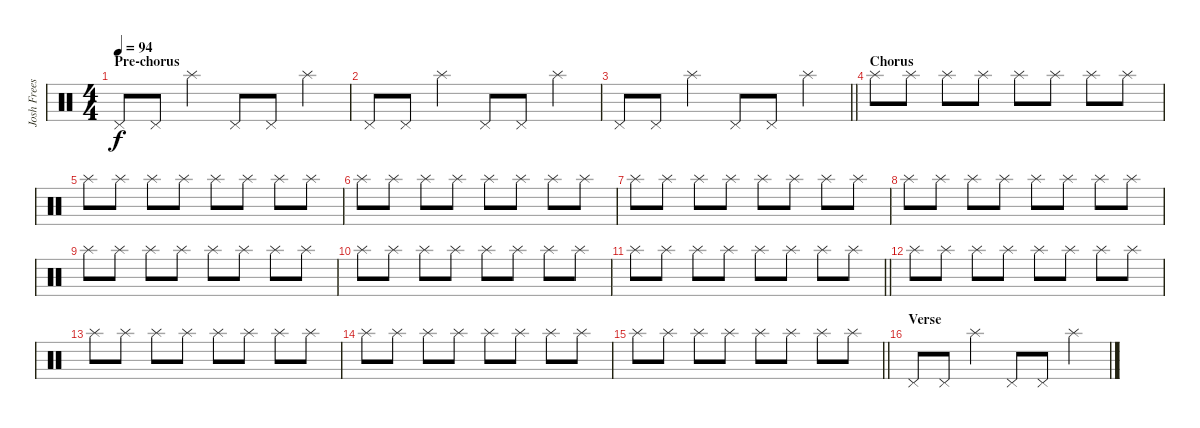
\track ("Josh Freese (Studio Drummer)" "Josh Frees") {instrument percussion}
\staff {score}
\articulation defaults
\ts (4 4)
\section ("" "Pre-chorus")
\tempo 94
\clef neutral
\ks c "Pedal Hi-Hat (hit)".8{dy f} "Pedal Hi-Hat (hit)".8 "Splash (hit)".4 "Pedal Hi-Hat (hit)".8 "Pedal Hi-Hat (hit)".8 "Splash (hit)".4
|
"Pedal Hi-Hat (hit)".8 "Pedal Hi-Hat (hit)".8 "Splash (hit)".4 "Pedal Hi-Hat (hit)".8 "Pedal Hi-Hat (hit)".8 "Splash (hit)".4 |
\barLineRight lightlight "Pedal Hi-Hat (hit)".8 "Pedal Hi-Hat (hit)".8 "Splash (hit)".4 "Pedal Hi-Hat (hit)".8 "Pedal Hi-Hat (hit)".8 "Splash (hit)".4
|
\section ("" "Chorus")
"Splash (hit)".8 "Splash (hit)".8 "Splash (hit)".8 "Splash (hit)".8 "Splash (hit)".8 "Splash (hit)".8 "Splash (hit)".8 "Splash (hit)".8 |
"Splash (hit)".8 "Splash (hit)".8 "Splash (hit)".8 "Splash (hit)".8 "Splash (hit)".8 "Splash (hit)".8 "Splash (hit)".8 "Splash (hit)".8 |
"Splash (hit)".8 "Splash (hit)".8 "Splash (hit)".8 "Splash (hit)".8 "Splash (hit)".8 "Splash (hit)".8 "Splash (hit)".8 "Splash (hit)".8 |
"Splash (hit)".8 "Splash (hit)".8 "Splash (hit)".8 "Splash (hit)".8 "Splash (hit)".8 "Splash (hit)".8 "Splash (hit)".8 "Splash (hit)".8 |
"Splash (hit)".8 "Splash (hit)".8 "Splash (hit)".8 "Splash (hit)".8 "Splash (hit)".8 "Splash (hit)".8 "Splash (hit)".8 "Splash (hit)".8 |
"Splash (hit)".8 "Splash (hit)".8 "Splash (hit)".8 "Splash (hit)".8 "Splash (hit)".8 "Splash (hit)".8 "Splash (hit)".8 "Splash (hit)".8 |
"Splash (hit)".8 "Splash (hit)".8 "Splash (hit)".8 "Splash (hit)".8 "Splash (hit)".8 "Splash (hit)".8 "Splash (hit)".8 "Splash (hit)".8 |
\barLineRight lightlight "Splash (hit)".8 "Splash (hit)".8 "Splash (hit)".8 "Splash (hit)".8 "Splash (hit)".8 "Splash (hit)".8 "Splash (hit)".8 "Splash (hit)".8
|
"Splash (hit)".8 "Splash (hit)".8 "Splash (hit)".8 "Splash (hit)".8 "Splash (hit)".8 "Splash (hit)".8 "Splash (hit)".8 "Splash (hit)".8 |
"Splash (hit)".8 "Splash (hit)".8 "Splash (hit)".8 "Splash (hit)".8 "Splash (hit)".8 "Splash (hit)".8 "Splash (hit)".8 "Splash (hit)".8 |
"Splash (hit)".8 "Splash (hit)".8 "Splash (hit)".8 "Splash (hit)".8 "Splash (hit)".8 "Splash (hit)".8 "Splash (hit)".8 "Splash (hit)".8 |
\barLineRight lightlight "Splash (hit)".8 "Splash (hit)".8 "Splash (hit)".8 "Splash (hit)".8 "Splash (hit)".8 "Splash (hit)".8 "Splash (hit)".8 "Splash (hit)".8
|
\section ("" "Verse")
"Pedal Hi-Hat (hit)".8 "Pedal Hi-Hat (hit)".8 "Splash (hit)".4 "Pedal Hi-Hat (hit)".8 "Pedal Hi-Hat (hit)".8 "Splash (hit)".4
